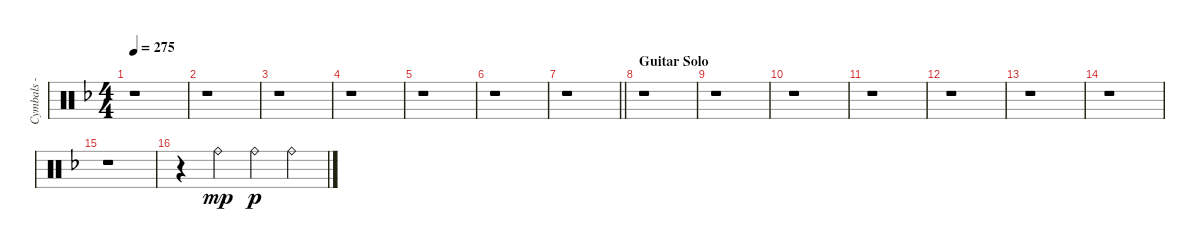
\track ("Cymbals - ride" "Cymbals - ") {instrument percussion}
\staff {score}
\articulation defaults
\ts (4 4)
\tempo 275
\clef neutral
\ks dminor
r.1{dy mp} |
r.1 |
r.1 |
r.1 |
r.1 |
r.1 |
\barLineRight lightlight
r.1 |
\section ("" "Guitar Solo")
r.1 |
r.1 |
r.1 |
r.1 |
r.1 |
r.1 |
r.1 |
r.1 |
r.4 "Ride (bell)".4 "Ride (bell)".4{dy p} "Ride (bell)".4
